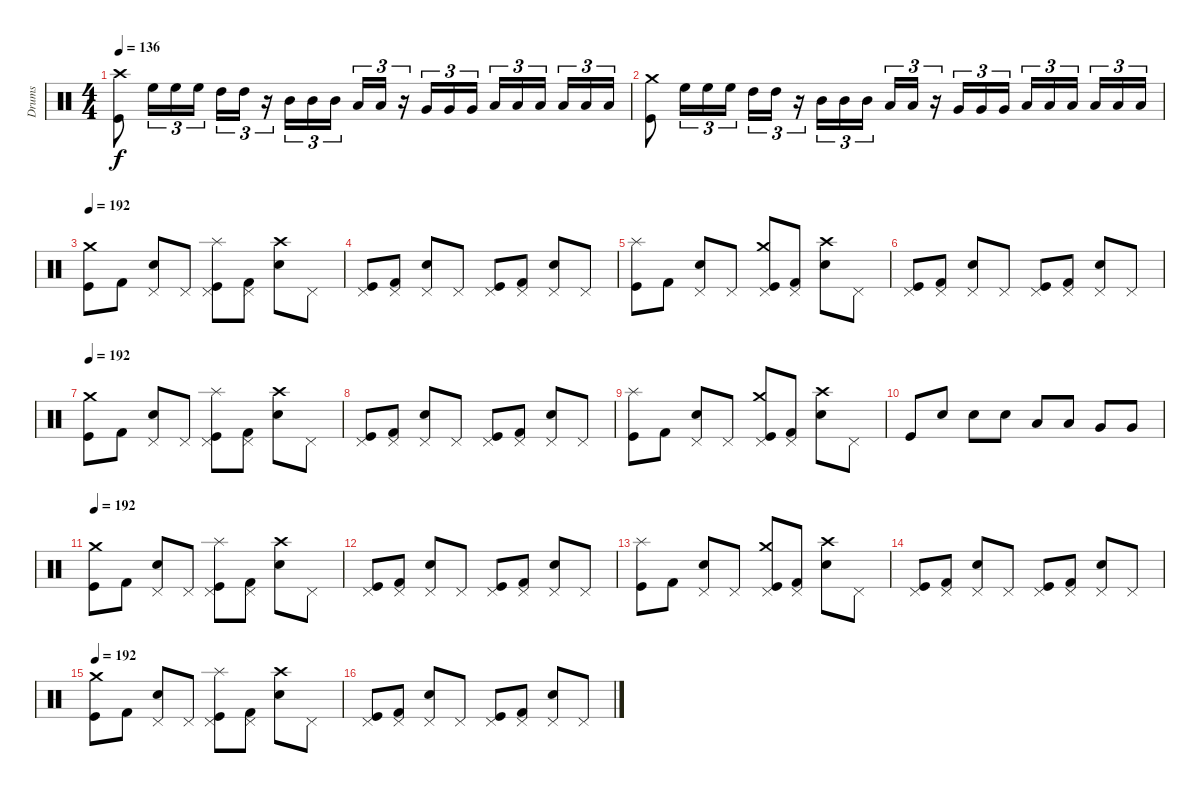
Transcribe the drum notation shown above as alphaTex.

\track ("Drums" "Drums") {instrument percussion}
\staff {score}
\articulation defaults
\ts (4 4)
\tempo 136
\clef neutral
\ks c
("Crash high (hit)" "Kick (hit)").8{dy f} "High Floor Tom (hit)".16{tu (3 2)} "High Floor Tom (hit)".16{tu (3 2)} "High Floor Tom (hit)".16{tu (3 2)} "High Tom (hit)".16{tu (3 2)} "High Tom (hit)".16{tu (3 2)} r.16{tu (3 2)} "Mid Tom (hit)".16{tu (3 2)} "Mid Tom (hit)".16{tu (3 2)} "Mid Tom (hit)".16{tu (3 2)} "Low Tom (hit)".16{tu (3 2)} "Low Tom (hit)".16{tu (3 2)} r.16{tu (3 2)} "Very Low Tom (hit)".16{tu (3 2)} "Very Low Tom (hit)".16{tu (3 2)} "Very Low Tom (hit)".16{tu (3 2)} "Low Floor Tom (hit)".16{tu (3 2)} "Low Floor Tom (hit)".16{tu (3 2)} "Low Floor Tom (hit)".16{tu (3 2)} "Low Floor Tom (hit)".16{tu (3 2)} "Low Floor Tom (hit)".16{tu (3 2)} "Low Floor Tom (hit)".16{tu (3 2)} |
("Crash medium (hit)" "Kick (hit)").8 "High Floor Tom (hit)".16{tu (3 2)} "High Floor Tom (hit)".16{tu (3 2)} "High Floor Tom (hit)".16{tu (3 2)} "High Tom (hit)".16{tu (3 2)} "High Tom (hit)".16{tu (3 2)} r.16{tu (3 2)} "Mid Tom (hit)".16{tu (3 2)} "Mid Tom (hit)".16{tu (3 2)} "Mid Tom (hit)".16{tu (3 2)} "Low Tom (hit)".16{tu (3 2)} "Low Tom (hit)".16{tu (3 2)} r.16{tu (3 2)} "Very Low Tom (hit)".16{tu (3 2)} "Very Low Tom (hit)".16{tu (3 2)} "Very Low Tom (hit)".16{tu (3 2)} "Low Floor Tom (hit)".16{tu (3 2)} "Low Floor Tom (hit)".16{tu (3 2)} "Low Floor Tom (hit)".16{tu (3 2)} "Low Floor Tom (hit)".16{tu (3 2)} "Low Floor Tom (hit)".16{tu (3 2)} "Low Floor Tom (hit)".16{tu (3 2)} |
\tempo 192
("Crash medium (hit)" "Kick (hit)").8 "Kick (hit) 2".8 ("Electric Snare (hit)" "Pedal Hi-Hat (hit)").8 "Pedal Hi-Hat (hit)".8 ("Splash (hit)" "Pedal Hi-Hat (hit)" "Kick (hit)").8 ("Pedal Hi-Hat (hit)" "Kick (hit) 2").8 ("Crash high (hit)" "Electric Snare (hit)").8 "Pedal Hi-Hat (hit)".8 |
("Pedal Hi-Hat (hit)" "Kick (hit)").8 ("Pedal Hi-Hat (hit)" "Kick (hit) 2").8 ("Electric Snare (hit)" "Pedal Hi-Hat (hit)").8 "Pedal Hi-Hat (hit)".8 ("Pedal Hi-Hat (hit)" "Kick (hit)").8 ("Pedal Hi-Hat (hit)" "Kick (hit) 2").8 ("Electric Snare (hit)" "Pedal Hi-Hat (hit)").8 "Pedal Hi-Hat (hit)".8 |
("Splash (hit)" "Kick (hit)").8 "Kick (hit) 2".8 ("Electric Snare (hit)" "Pedal Hi-Hat (hit)").8 "Pedal Hi-Hat (hit)".8 ("Crash medium (hit)" "Pedal Hi-Hat (hit)" "Kick (hit)").8 ("Pedal Hi-Hat (hit)" "Kick (hit) 2").8 ("Crash high (hit)" "Electric Snare (hit)").8 "Pedal Hi-Hat (hit)".8 |
("Pedal Hi-Hat (hit)" "Kick (hit)").8 ("Pedal Hi-Hat (hit)" "Kick (hit) 2").8 ("Electric Snare (hit)" "Pedal Hi-Hat (hit)").8 "Pedal Hi-Hat (hit)".8 ("Pedal Hi-Hat (hit)" "Kick (hit)").8 ("Pedal Hi-Hat (hit)" "Kick (hit) 2").8 ("Electric Snare (hit)" "Pedal Hi-Hat (hit)").8 "Pedal Hi-Hat (hit)".8 |
\tempo 192
("Crash medium (hit)" "Kick (hit)").8 "Kick (hit) 2".8 ("Electric Snare (hit)" "Pedal Hi-Hat (hit)").8 "Pedal Hi-Hat (hit)".8 ("Splash (hit)" "Pedal Hi-Hat (hit)" "Kick (hit)").8 ("Pedal Hi-Hat (hit)" "Kick (hit) 2").8 ("Crash high (hit)" "Electric Snare (hit)").8 "Pedal Hi-Hat (hit)".8 |
("Pedal Hi-Hat (hit)" "Kick (hit)").8 ("Pedal Hi-Hat (hit)" "Kick (hit) 2").8 ("Electric Snare (hit)" "Pedal Hi-Hat (hit)").8 "Pedal Hi-Hat (hit)".8 ("Pedal Hi-Hat (hit)" "Kick (hit)").8 ("Pedal Hi-Hat (hit)" "Kick (hit) 2").8 ("Electric Snare (hit)" "Pedal Hi-Hat (hit)").8 "Pedal Hi-Hat (hit)".8 |
("Splash (hit)" "Kick (hit)").8 "Kick (hit) 2".8 ("Electric Snare (hit)" "Pedal Hi-Hat (hit)").8 "Pedal Hi-Hat (hit)".8 ("Crash medium (hit)" "Pedal Hi-Hat (hit)" "Kick (hit)").8 ("Pedal Hi-Hat (hit)" "Kick (hit) 2").8 ("Crash high (hit)" "Electric Snare (hit)").8 "Pedal Hi-Hat (hit)".8 |
"Kick (hit)".8 "Electric Snare (hit)".8 "Electric Snare (hit)".8 "Electric Snare (hit)".8 "Low Tom (hit)".8 "Low Tom (hit)".8 "Very Low Tom (hit)".8 "Very Low Tom (hit)".8 |
\tempo 192
("Crash medium (hit)" "Kick (hit)").8 "Kick (hit) 2".8 ("Electric Snare (hit)" "Pedal Hi-Hat (hit)").8 "Pedal Hi-Hat (hit)".8 ("Splash (hit)" "Pedal Hi-Hat (hit)" "Kick (hit)").8 ("Pedal Hi-Hat (hit)" "Kick (hit) 2").8 ("Crash high (hit)" "Electric Snare (hit)").8 "Pedal Hi-Hat (hit)".8 |
("Pedal Hi-Hat (hit)" "Kick (hit)").8 ("Pedal Hi-Hat (hit)" "Kick (hit) 2").8 ("Electric Snare (hit)" "Pedal Hi-Hat (hit)").8 "Pedal Hi-Hat (hit)".8 ("Pedal Hi-Hat (hit)" "Kick (hit)").8 ("Pedal Hi-Hat (hit)" "Kick (hit) 2").8 ("Electric Snare (hit)" "Pedal Hi-Hat (hit)").8 "Pedal Hi-Hat (hit)".8 |
("Splash (hit)" "Kick (hit)").8 "Kick (hit) 2".8 ("Electric Snare (hit)" "Pedal Hi-Hat (hit)").8 "Pedal Hi-Hat (hit)".8 ("Crash medium (hit)" "Pedal Hi-Hat (hit)" "Kick (hit)").8 ("Pedal Hi-Hat (hit)" "Kick (hit) 2").8 ("Crash high (hit)" "Electric Snare (hit)").8 "Pedal Hi-Hat (hit)".8 |
("Pedal Hi-Hat (hit)" "Kick (hit)").8 ("Pedal Hi-Hat (hit)" "Kick (hit) 2").8 ("Electric Snare (hit)" "Pedal Hi-Hat (hit)").8 "Pedal Hi-Hat (hit)".8 ("Pedal Hi-Hat (hit)" "Kick (hit)").8 ("Pedal Hi-Hat (hit)" "Kick (hit) 2").8 ("Electric Snare (hit)" "Pedal Hi-Hat (hit)").8 "Pedal Hi-Hat (hit)".8 |
\tempo 192
("Crash medium (hit)" "Kick (hit)").8 "Kick (hit) 2".8 ("Electric Snare (hit)" "Pedal Hi-Hat (hit)").8 "Pedal Hi-Hat (hit)".8 ("Splash (hit)" "Pedal Hi-Hat (hit)" "Kick (hit)").8 ("Pedal Hi-Hat (hit)" "Kick (hit) 2").8 ("Crash high (hit)" "Electric Snare (hit)").8 "Pedal Hi-Hat (hit)".8 |
("Pedal Hi-Hat (hit)" "Kick (hit)").8 ("Pedal Hi-Hat (hit)" "Kick (hit) 2").8 ("Electric Snare (hit)" "Pedal Hi-Hat (hit)").8 "Pedal Hi-Hat (hit)".8 ("Pedal Hi-Hat (hit)" "Kick (hit)").8 ("Pedal Hi-Hat (hit)" "Kick (hit) 2").8 ("Electric Snare (hit)" "Pedal Hi-Hat (hit)").8 "Pedal Hi-Hat (hit)".8
